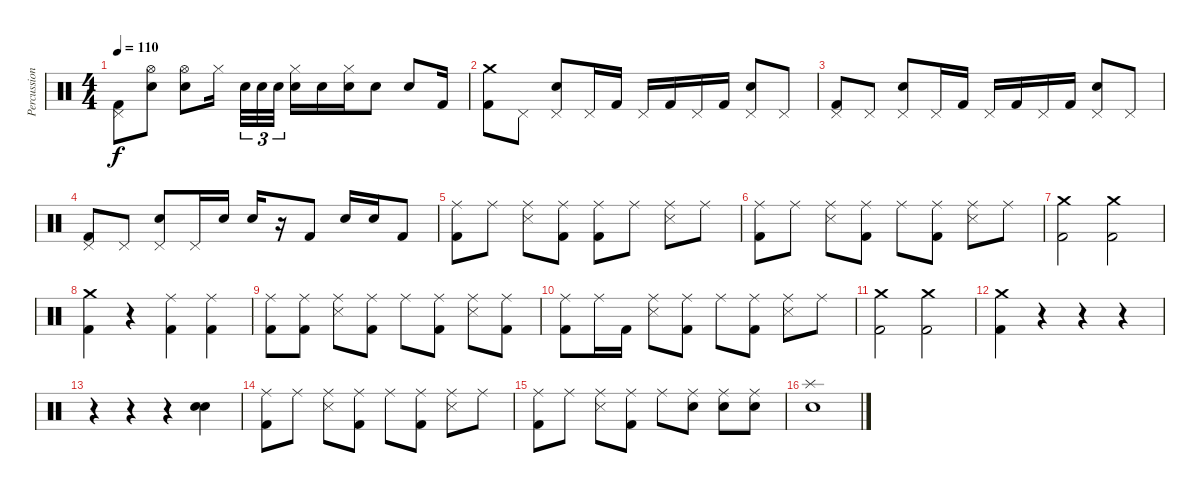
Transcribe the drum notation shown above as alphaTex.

\track ("Percussion" "Percussion") {instrument percussion}
\staff {score}
\articulation defaults
\ts (4 4)
\tempo 110
\clef neutral
\ks c
("Pedal Hi-Hat (hit)" "Kick (hit) 2").8{dy f} ("Hi-Hat (open)" "Electric Snare (hit)").8 ("Hi-Hat (open)" "Electric Snare (hit)").8 "Hi-Hat (closed)".16{beam splitsecondary} "Electric Snare (hit)".32{tu (3 2)} "Electric Snare (hit)".32{tu (3 2)} "Electric Snare (hit)".32{tu (3 2)} ("Hi-Hat (closed)" "Electric Snare (hit)").16 "Electric Snare (hit)".16 ("Hi-Hat (closed)" "Electric Snare (hit)").16 "Electric Snare (hit)".8 "Electric Snare (hit)".8 "Kick (hit) 2".16 |
("Crash medium (hit)" "Kick (hit) 2").8 "Pedal Hi-Hat (hit)".8 ("Pedal Hi-Hat (hit)" "Electric Snare (hit)").8 "Pedal Hi-Hat (hit)".16 "Kick (hit) 2".16 "Pedal Hi-Hat (hit)".16 "Kick (hit) 2".16 "Pedal Hi-Hat (hit)".16 "Kick (hit) 2".16 ("Pedal Hi-Hat (hit)" "Electric Snare (hit)").8 "Pedal Hi-Hat (hit)".8 |
("Pedal Hi-Hat (hit)" "Kick (hit) 2").8 "Pedal Hi-Hat (hit)".8 ("Pedal Hi-Hat (hit)" "Electric Snare (hit)").8 "Pedal Hi-Hat (hit)".16 "Kick (hit) 2".16 "Pedal Hi-Hat (hit)".16 "Kick (hit) 2".16 "Pedal Hi-Hat (hit)".16 "Kick (hit) 2".16 ("Pedal Hi-Hat (hit)" "Electric Snare (hit)").8 "Pedal Hi-Hat (hit)".8 |
("Pedal Hi-Hat (hit)" "Kick (hit) 2").8 "Pedal Hi-Hat (hit)".8 ("Pedal Hi-Hat (hit)" "Electric Snare (hit)").8 "Pedal Hi-Hat (hit)".16 "Electric Snare (hit)".16 "Electric Snare (hit)".16 r.16 "Kick (hit) 2".8 "Electric Snare (hit)".16 "Electric Snare (hit)".16 "Kick (hit) 2".8 |
("Ride (middle)" "Kick (hit) 2").8 "Ride (middle)".8 ("Ride (middle)" "Snare (side stick) 3").8 ("Ride (middle)" "Kick (hit) 2").8 ("Ride (middle)" "Kick (hit) 2").8 "Ride (middle)".8 ("Ride (middle)" "Snare (side stick) 3").8 "Ride (middle)".8 |
("Ride (middle)" "Kick (hit) 2").8 "Ride (middle)".8 ("Ride (middle)" "Snare (side stick) 3").8 ("Ride (middle)" "Kick (hit) 2").8 "Ride (middle)".8 ("Ride (middle)" "Kick (hit) 2").8 ("Ride (middle)" "Snare (side stick) 3").8 "Ride (middle)".8 |
("Crash medium (hit)" "Kick (hit) 2").2 ("Crash medium (hit)" "Kick (hit) 2").2 |
("Crash medium (hit)" "Kick (hit) 2").4 r.4 ("Ride (middle)" "Kick (hit) 2").4 ("Ride (middle)" "Kick (hit) 2").4 |
("Ride (middle)" "Kick (hit) 2").8 ("Ride (middle)" "Kick (hit) 2").8 ("Ride (middle)" "Snare (side stick) 3").8 ("Ride (middle)" "Kick (hit) 2").8 "Ride (middle)".8 ("Ride (middle)" "Kick (hit) 2").8 ("Ride (middle)" "Snare (side stick) 3").8 ("Ride (middle)" "Kick (hit) 2").8 |
("Ride (middle)" "Kick (hit) 2").8 "Ride (middle)".16 "Kick (hit) 2".16 ("Ride (middle)" "Snare (side stick) 3").8 ("Ride (middle)" "Kick (hit) 2").8 "Ride (middle)".8 ("Ride (middle)" "Kick (hit) 2").8 ("Ride (middle)" "Snare (side stick) 3").8 "Ride (middle)".8 |
("Crash medium (hit)" "Kick (hit) 2").2 ("Crash medium (hit)" "Kick (hit) 2").2 |
("Crash medium (hit)" "Kick (hit) 2").4 r.4 r.4 r.4 |
r.4 r.4 r.4 ("Snare (hit) 2" "Snare (hit) 2").4 |
("Ride (middle)" "Kick (hit) 2").8 "Ride (middle)".8 ("Ride (middle)" "Snare (side stick) 3").8 ("Ride (middle)" "Kick (hit) 2").8 "Ride (middle)".8 ("Ride (middle)" "Kick (hit) 2").8 ("Ride (middle)" "Snare (side stick) 3").8 "Ride (middle)".8 |
("Ride (middle)" "Kick (hit) 2").8 "Ride (middle)".8 ("Ride (middle)" "Snare (side stick) 3").8 ("Ride (middle)" "Kick (hit) 2").8 "Ride (middle)".8 ("Ride (middle)" "Snare (hit) 2").8 ("Ride (middle)" "Snare (hit) 2").8 ("Ride (middle)" "Snare (hit) 2").8 |
("Splash (hit)" "Snare (hit) 2").1
